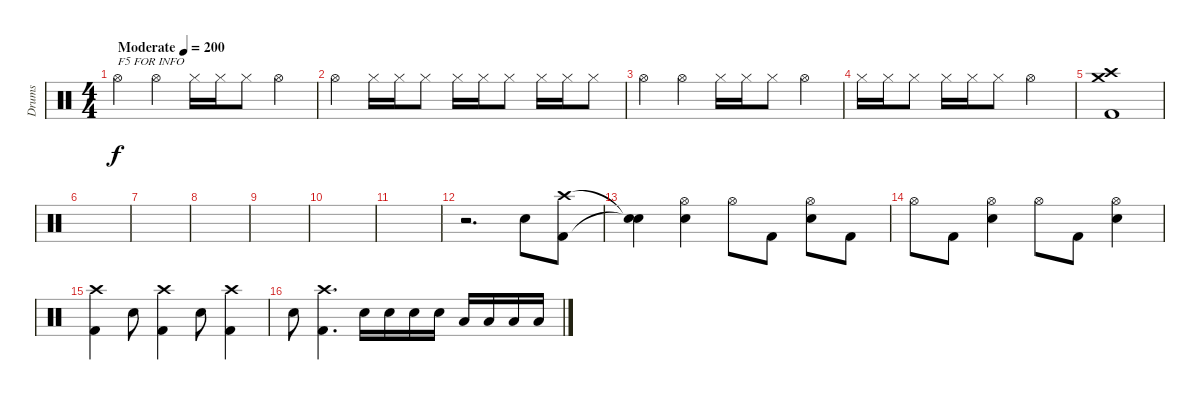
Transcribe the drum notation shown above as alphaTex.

\track ("Drums" "Drums") {instrument percussion}
\staff {score}
\articulation defaults
\ts (4 4)
\tempo (200 "Moderate")
\clef neutral
\ks c "Hi-Hat (open)".4{txt "F5 FOR INFO" dy f} "Hi-Hat (open)".4 "Hi-Hat (closed)".16 "Hi-Hat (closed)".16 "Hi-Hat (closed)".8 "Hi-Hat (open)".4
|
"Hi-Hat (open)".4 "Hi-Hat (closed)".16 "Hi-Hat (closed)".16 "Hi-Hat (closed)".8 "Hi-Hat (closed)".16 "Hi-Hat (closed)".16 "Hi-Hat (closed)".8 "Hi-Hat (closed)".16 "Hi-Hat (closed)".16 "Hi-Hat (closed)".8 |
"Hi-Hat (open)".4 "Hi-Hat (open)".4 "Hi-Hat (closed)".16 "Hi-Hat (closed)".16 "Hi-Hat (closed)".8 "Hi-Hat (open)".4 |
"Hi-Hat (closed)".16 "Hi-Hat (closed)".16 "Hi-Hat (closed)".8 "Hi-Hat (closed)".16 "Hi-Hat (closed)".16 "Hi-Hat (closed)".8 "Hi-Hat (open)".2 |
("Crash high (hit)" "Crash medium (hit)" "Kick (hit) 2").1 |
|
|
|
|
|
|
r.2{d} "Electric Snare (hit)".8 ("Crash high (hit)" "Kick (hit) 2").8 |
("Snare (hit)"{t} "Snare (hit)"{t}).4 ("Hi-Hat (open)" "Electric Snare (hit)").4 "Hi-Hat (open)".8 "Kick (hit) 2".8 ("Hi-Hat (open)" "Electric Snare (hit)").8 "Kick (hit) 2".8 |
"Hi-Hat (open)".8 "Kick (hit) 2".8 ("Hi-Hat (open)" "Electric Snare (hit)").4 "Hi-Hat (open)".8 "Kick (hit) 2".8 ("Hi-Hat (open)" "Electric Snare (hit)").4 |
("Crash high (hit)" "Kick (hit) 2").4 "Electric Snare (hit)".8 ("Crash high (hit)" "Kick (hit) 2").4 "Electric Snare (hit)".8 ("Crash high (hit)" "Kick (hit) 2").4 |
"Electric Snare (hit)".8 ("Crash high (hit)" "Kick (hit) 2").4{d} "Electric Snare (hit)".16 "Electric Snare (hit)".16 "Electric Snare (hit)".16 "Electric Snare (hit)".16 "Low Tom (hit)".16 "Low Tom (hit)".16 "Low Tom (hit)".16 "Low Tom (hit)".16
